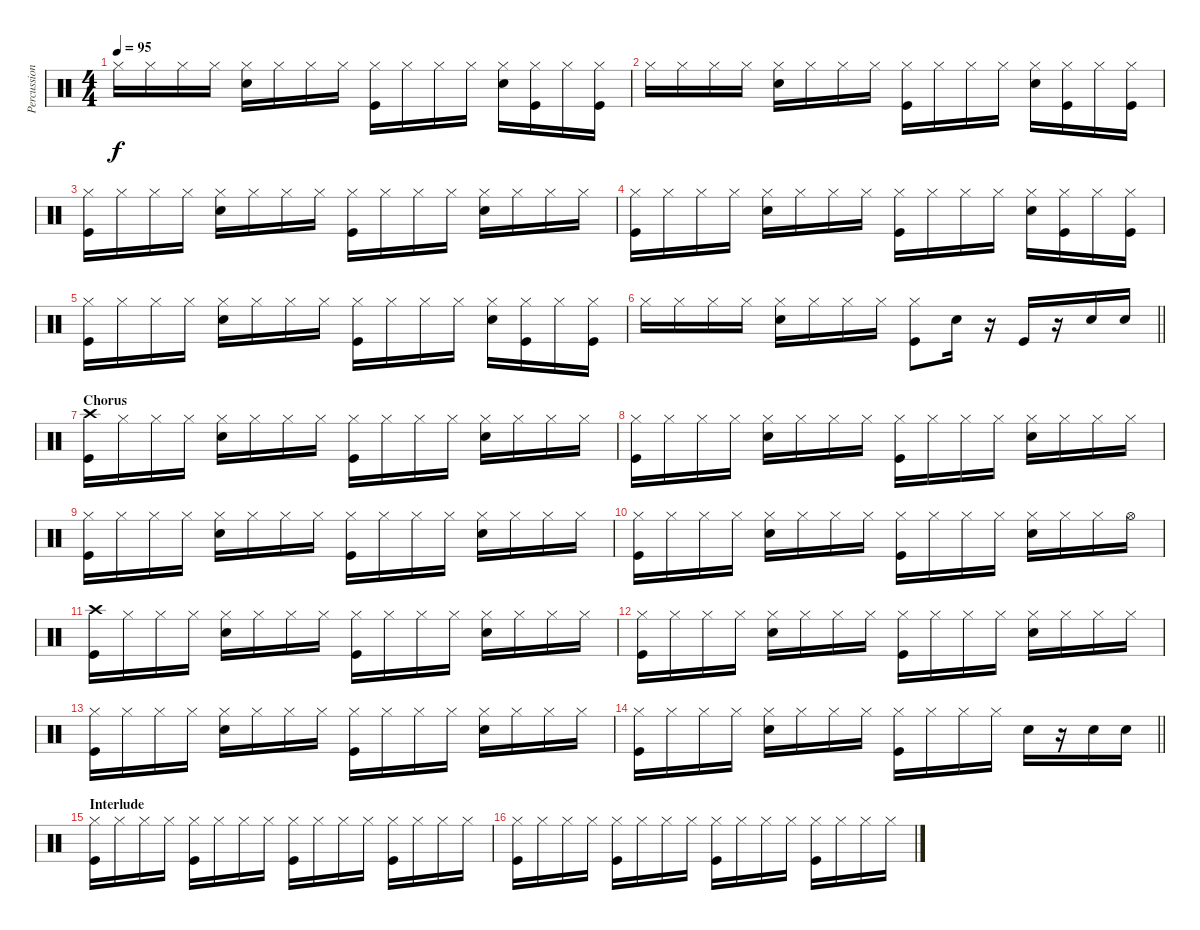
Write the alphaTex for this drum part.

\track ("Percussion" "Percussion") {instrument percussion}
\staff {score}
\articulation defaults
\ts (4 4)
\tempo 95
\clef neutral
\ks c "Hi-Hat (closed)".16{dy f} "Hi-Hat (closed)".16 "Hi-Hat (closed)".16 "Hi-Hat (closed)".16
("Hi-Hat (closed)" "Snare (hit) 2").16 "Hi-Hat (closed)".16 "Hi-Hat (closed)".16 "Hi-Hat (closed)".16 ("Hi-Hat (closed)" "Kick (hit)").16 "Hi-Hat (closed)".16 "Hi-Hat (closed)".16 "Hi-Hat (closed)".16 ("Hi-Hat (closed)" "Snare (hit) 2").16 ("Hi-Hat (closed)" "Kick (hit)").16 "Hi-Hat (closed)".16 ("Hi-Hat (closed)" "Kick (hit)").16 |
"Hi-Hat (closed)".16 "Hi-Hat (closed)".16 "Hi-Hat (closed)".16 "Hi-Hat (closed)".16 ("Hi-Hat (closed)" "Snare (hit) 2").16 "Hi-Hat (closed)".16 "Hi-Hat (closed)".16 "Hi-Hat (closed)".16 ("Hi-Hat (closed)" "Kick (hit)").16 "Hi-Hat (closed)".16 "Hi-Hat (closed)".16 "Hi-Hat (closed)".16 ("Hi-Hat (closed)" "Snare (hit) 2").16 ("Hi-Hat (closed)" "Kick (hit)").16 "Hi-Hat (closed)".16 ("Hi-Hat (closed)" "Kick (hit)").16 |
("Hi-Hat (closed)" "Kick (hit)").16 "Hi-Hat (closed)".16 "Hi-Hat (closed)".16 "Hi-Hat (closed)".16 ("Hi-Hat (closed)" "Snare (hit) 2").16 "Hi-Hat (closed)".16 "Hi-Hat (closed)".16 "Hi-Hat (closed)".16 ("Hi-Hat (closed)" "Kick (hit)").16 "Hi-Hat (closed)".16 "Hi-Hat (closed)".16 "Hi-Hat (closed)".16 ("Hi-Hat (closed)" "Snare (hit) 2").16 "Hi-Hat (closed)".16 "Hi-Hat (closed)".16 "Hi-Hat (closed)".16 |
("Hi-Hat (closed)" "Kick (hit)").16 "Hi-Hat (closed)".16 "Hi-Hat (closed)".16 "Hi-Hat (closed)".16 ("Hi-Hat (closed)" "Snare (hit) 2").16 "Hi-Hat (closed)".16 "Hi-Hat (closed)".16 "Hi-Hat (closed)".16 ("Hi-Hat (closed)" "Kick (hit)").16 "Hi-Hat (closed)".16 "Hi-Hat (closed)".16 "Hi-Hat (closed)".16 ("Hi-Hat (closed)" "Snare (hit) 2").16 ("Hi-Hat (closed)" "Kick (hit)").16 "Hi-Hat (closed)".16 ("Hi-Hat (closed)" "Kick (hit)").16 |
("Hi-Hat (closed)" "Kick (hit)").16 "Hi-Hat (closed)".16 "Hi-Hat (closed)".16 "Hi-Hat (closed)".16 ("Hi-Hat (closed)" "Snare (hit) 2").16 "Hi-Hat (closed)".16 "Hi-Hat (closed)".16 "Hi-Hat (closed)".16 ("Hi-Hat (closed)" "Kick (hit)").16 "Hi-Hat (closed)".16 "Hi-Hat (closed)".16 "Hi-Hat (closed)".16 ("Hi-Hat (closed)" "Snare (hit) 2").16 ("Hi-Hat (closed)" "Kick (hit)").16 "Hi-Hat (closed)".16 ("Hi-Hat (closed)" "Kick (hit)").16 |
\barLineRight lightlight "Hi-Hat (closed)".16 "Hi-Hat (closed)".16 "Hi-Hat (closed)".16 "Hi-Hat (closed)".16
("Hi-Hat (closed)" "Snare (hit) 2").16 "Hi-Hat (closed)".16 "Hi-Hat (closed)".16 "Hi-Hat (closed)".16 ("Hi-Hat (closed)" "Kick (hit)").8 "Snare (hit) 2".16 r.16 "Kick (hit)".16 r.16 "Snare (hit) 2".16 "Snare (hit) 2".16 |
\section ("" "Chorus")
("Crash high (hit)" "Kick (hit)").16 "Hi-Hat (closed)".16 "Hi-Hat (closed)".16 "Hi-Hat (closed)".16 ("Hi-Hat (closed)" "Snare (hit) 2").16 "Hi-Hat (closed)".16 "Hi-Hat (closed)".16 "Hi-Hat (closed)".16 ("Hi-Hat (closed)" "Kick (hit)").16 "Hi-Hat (closed)".16 "Hi-Hat (closed)".16 "Hi-Hat (closed)".16 ("Hi-Hat (closed)" "Snare (hit) 2").16 "Hi-Hat (closed)".16 "Hi-Hat (closed)".16 "Hi-Hat (closed)".16 |
("Hi-Hat (closed)" "Kick (hit)").16 "Hi-Hat (closed)".16 "Hi-Hat (closed)".16 "Hi-Hat (closed)".16 ("Hi-Hat (closed)" "Snare (hit) 2").16 "Hi-Hat (closed)".16 "Hi-Hat (closed)".16 "Hi-Hat (closed)".16 ("Hi-Hat (closed)" "Kick (hit)").16 "Hi-Hat (closed)".16 "Hi-Hat (closed)".16 "Hi-Hat (closed)".16 ("Hi-Hat (closed)" "Snare (hit) 2").16 "Hi-Hat (closed)".16 "Hi-Hat (closed)".16 "Hi-Hat (closed)".16 |
("Hi-Hat (closed)" "Kick (hit)").16 "Hi-Hat (closed)".16 "Hi-Hat (closed)".16 "Hi-Hat (closed)".16 ("Hi-Hat (closed)" "Snare (hit) 2").16 "Hi-Hat (closed)".16 "Hi-Hat (closed)".16 "Hi-Hat (closed)".16 ("Hi-Hat (closed)" "Kick (hit)").16 "Hi-Hat (closed)".16 "Hi-Hat (closed)".16 "Hi-Hat (closed)".16 ("Hi-Hat (closed)" "Snare (hit) 2").16 "Hi-Hat (closed)".16 "Hi-Hat (closed)".16 "Hi-Hat (closed)".16 |
("Hi-Hat (closed)" "Kick (hit)").16 "Hi-Hat (closed)".16 "Hi-Hat (closed)".16 "Hi-Hat (closed)".16 ("Hi-Hat (closed)" "Snare (hit) 2").16 "Hi-Hat (closed)".16 "Hi-Hat (closed)".16 "Hi-Hat (closed)".16 ("Hi-Hat (closed)" "Kick (hit)").16 "Hi-Hat (closed)".16 "Hi-Hat (closed)".16 "Hi-Hat (closed)".16 ("Hi-Hat (closed)" "Snare (hit) 2").16 "Hi-Hat (closed)".16 "Hi-Hat (closed)".16 "Hi-Hat (open)".16 |
("Crash high (hit)" "Kick (hit)").16 "Hi-Hat (closed)".16 "Hi-Hat (closed)".16 "Hi-Hat (closed)".16 ("Hi-Hat (closed)" "Snare (hit) 2").16 "Hi-Hat (closed)".16 "Hi-Hat (closed)".16 "Hi-Hat (closed)".16 ("Hi-Hat (closed)" "Kick (hit)").16 "Hi-Hat (closed)".16 "Hi-Hat (closed)".16 "Hi-Hat (closed)".16 ("Hi-Hat (closed)" "Snare (hit) 2").16 "Hi-Hat (closed)".16 "Hi-Hat (closed)".16 "Hi-Hat (closed)".16 |
("Hi-Hat (closed)" "Kick (hit)").16 "Hi-Hat (closed)".16 "Hi-Hat (closed)".16 "Hi-Hat (closed)".16 ("Hi-Hat (closed)" "Snare (hit) 2").16 "Hi-Hat (closed)".16 "Hi-Hat (closed)".16 "Hi-Hat (closed)".16 ("Hi-Hat (closed)" "Kick (hit)").16 "Hi-Hat (closed)".16 "Hi-Hat (closed)".16 "Hi-Hat (closed)".16 ("Hi-Hat (closed)" "Snare (hit) 2").16 "Hi-Hat (closed)".16 "Hi-Hat (closed)".16 "Hi-Hat (closed)".16 |
("Hi-Hat (closed)" "Kick (hit)").16 "Hi-Hat (closed)".16 "Hi-Hat (closed)".16 "Hi-Hat (closed)".16 ("Hi-Hat (closed)" "Snare (hit) 2").16 "Hi-Hat (closed)".16 "Hi-Hat (closed)".16 "Hi-Hat (closed)".16 ("Hi-Hat (closed)" "Kick (hit)").16 "Hi-Hat (closed)".16 "Hi-Hat (closed)".16 "Hi-Hat (closed)".16 ("Hi-Hat (closed)" "Snare (hit) 2").16 "Hi-Hat (closed)".16 "Hi-Hat (closed)".16 "Hi-Hat (closed)".16 |
\barLineRight lightlight
("Hi-Hat (closed)" "Kick (hit)").16 "Hi-Hat (closed)".16 "Hi-Hat (closed)".16 "Hi-Hat (closed)".16 ("Hi-Hat (closed)" "Snare (hit) 2").16 "Hi-Hat (closed)".16 "Hi-Hat (closed)".16 "Hi-Hat (closed)".16 ("Hi-Hat (closed)" "Kick (hit)").16 "Hi-Hat (closed)".16 "Hi-Hat (closed)".16 "Hi-Hat (closed)".16 "Snare (hit) 2".16 r.16 "Snare (hit) 2".16 "Snare (hit) 2".16 |
\section ("" "Interlude")
("Hi-Hat (closed)" "Kick (hit)").16 "Hi-Hat (closed)".16 "Hi-Hat (closed)".16 "Hi-Hat (closed)".16 ("Hi-Hat (closed)" "Kick (hit)").16 "Hi-Hat (closed)".16 "Hi-Hat (closed)".16 "Hi-Hat (closed)".16 ("Hi-Hat (closed)" "Kick (hit)").16 "Hi-Hat (closed)".16 "Hi-Hat (closed)".16 "Hi-Hat (closed)".16 ("Hi-Hat (closed)" "Kick (hit)").16 "Hi-Hat (closed)".16 "Hi-Hat (closed)".16 "Hi-Hat (closed)".16 |
("Hi-Hat (closed)" "Kick (hit)").16 "Hi-Hat (closed)".16 "Hi-Hat (closed)".16 "Hi-Hat (closed)".16 ("Hi-Hat (closed)" "Kick (hit)").16 "Hi-Hat (closed)".16 "Hi-Hat (closed)".16 "Hi-Hat (closed)".16 ("Hi-Hat (closed)" "Kick (hit)").16 "Hi-Hat (closed)".16 "Hi-Hat (closed)".16 "Hi-Hat (closed)".16 ("Hi-Hat (closed)" "Kick (hit)").16 "Hi-Hat (closed)".16 "Hi-Hat (closed)".16 "Hi-Hat (closed)".16
